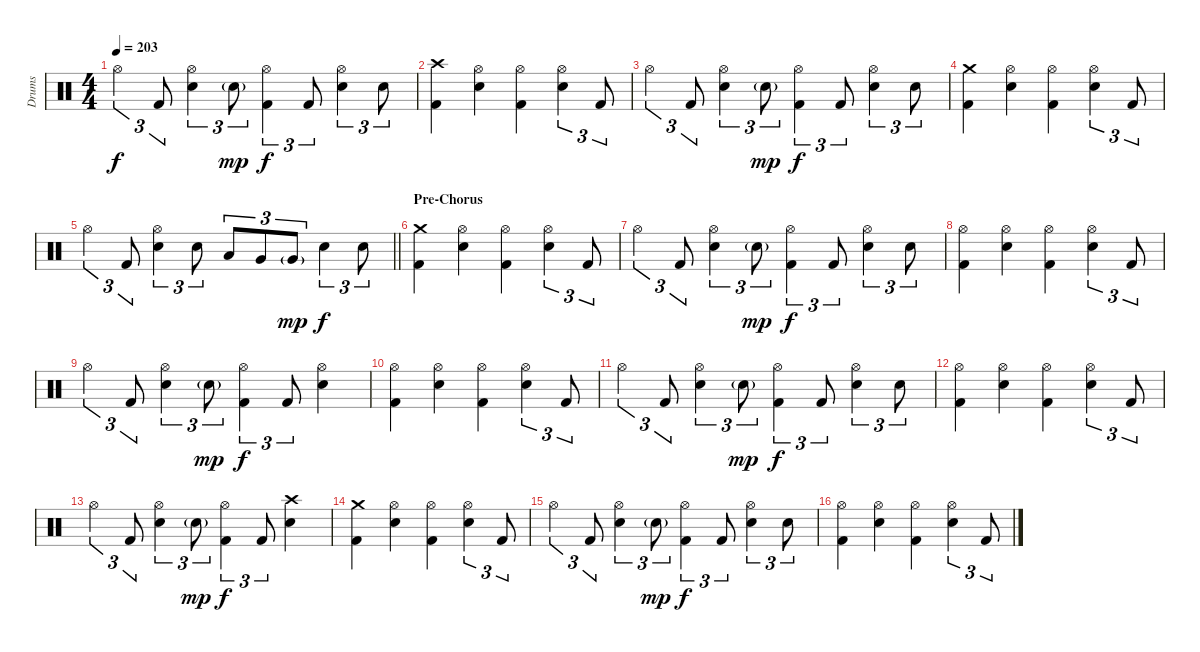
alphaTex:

\track ("Drums" "Drums") {instrument percussion}
\staff {score}
\articulation defaults
\ts (4 4)
\tempo 203
\clef neutral
\ks c "Hi-Hat (open)".4{tu (3 2) dy f} "Kick (hit) 2".8{tu (3 2)}
("Hi-Hat (open)" "Electric Snare (hit)").4{tu (3 2)} "Electric Snare (hit)"{g}.8{tu (3 2) dy mp} ("Hi-Hat (open)" "Kick (hit) 2").4{tu (3 2) dy f} "Kick (hit) 2".8{tu (3 2)} ("Hi-Hat (open)" "Electric Snare (hit)").4{tu (3 2)} "Electric Snare (hit)".8{tu (3 2)} |
("Crash high (hit)" "Kick (hit) 2").4 ("Hi-Hat (open)" "Electric Snare (hit)").4 ("Hi-Hat (open)" "Kick (hit) 2").4 ("Hi-Hat (open)" "Electric Snare (hit)").4{tu (3 2)} "Kick (hit) 2".8{tu (3 2)} |
"Hi-Hat (open)".4{tu (3 2)} "Kick (hit) 2".8{tu (3 2)} ("Hi-Hat (open)" "Electric Snare (hit)").4{tu (3 2)} "Electric Snare (hit)"{g}.8{tu (3 2) dy mp} ("Hi-Hat (open)" "Kick (hit) 2").4{tu (3 2) dy f} "Kick (hit) 2".8{tu (3 2)} ("Hi-Hat (open)" "Electric Snare (hit)").4{tu (3 2)} "Electric Snare (hit)".8{tu (3 2)} |
("Crash medium (hit)" "Kick (hit) 2").4 ("Hi-Hat (open)" "Electric Snare (hit)").4 ("Hi-Hat (open)" "Kick (hit) 2").4 ("Hi-Hat (open)" "Electric Snare (hit)").4{tu (3 2)} "Kick (hit) 2".8{tu (3 2)} |
\barLineRight lightlight "Hi-Hat (open)".4{tu (3 2)} "Kick (hit) 2".8{tu (3 2)}
("Hi-Hat (open)" "Electric Snare (hit)").4{tu (3 2)} "Electric Snare (hit)".8{tu (3 2)} "Low Tom (hit)".8{tu (3 2)} "Very Low Tom (hit)".8{tu (3 2)} "Very Low Tom (hit)"{g}.8{tu (3 2) dy mp} "Electric Snare (hit)".4{tu (3 2) dy f} "Electric Snare (hit)".8{tu (3 2)} |
\section ("" "Pre-Chorus")
("Crash medium (hit)" "Kick (hit) 2").4 ("Hi-Hat (open)" "Electric Snare (hit)").4 ("Hi-Hat (open)" "Kick (hit) 2").4 ("Hi-Hat (open)" "Electric Snare (hit)").4{tu (3 2)} "Kick (hit) 2".8{tu (3 2)} |
"Hi-Hat (open)".4{tu (3 2)} "Kick (hit) 2".8{tu (3 2)} ("Hi-Hat (open)" "Electric Snare (hit)").4{tu (3 2)} "Electric Snare (hit)"{g}.8{tu (3 2) dy mp} ("Hi-Hat (open)" "Kick (hit) 2").4{tu (3 2) dy f} "Kick (hit) 2".8{tu (3 2)} ("Hi-Hat (open)" "Electric Snare (hit)").4{tu (3 2)} "Electric Snare (hit)".8{tu (3 2)} |
("Hi-Hat (open)" "Kick (hit) 2").4 ("Hi-Hat (open)" "Electric Snare (hit)").4 ("Hi-Hat (open)" "Kick (hit) 2").4 ("Hi-Hat (open)" "Electric Snare (hit)").4{tu (3 2)} "Kick (hit) 2".8{tu (3 2)} |
"Hi-Hat (open)".4{tu (3 2)} "Kick (hit) 2".8{tu (3 2)} ("Hi-Hat (open)" "Electric Snare (hit)").4{tu (3 2)} "Electric Snare (hit)"{g}.8{tu (3 2) dy mp} ("Hi-Hat (open)" "Kick (hit) 2").4{tu (3 2) dy f} "Kick (hit) 2".8{tu (3 2)} ("Hi-Hat (open)" "Electric Snare (hit)").4 |
("Hi-Hat (open)" "Kick (hit) 2").4 ("Hi-Hat (open)" "Electric Snare (hit)").4 ("Hi-Hat (open)" "Kick (hit) 2").4 ("Hi-Hat (open)" "Electric Snare (hit)").4{tu (3 2)} "Kick (hit) 2".8{tu (3 2)} |
"Hi-Hat (open)".4{tu (3 2)} "Kick (hit) 2".8{tu (3 2)} ("Hi-Hat (open)" "Electric Snare (hit)").4{tu (3 2)} "Electric Snare (hit)"{g}.8{tu (3 2) dy mp} ("Hi-Hat (open)" "Kick (hit) 2").4{tu (3 2) dy f} "Kick (hit) 2".8{tu (3 2)} ("Hi-Hat (open)" "Electric Snare (hit)").4{tu (3 2)} "Electric Snare (hit)".8{tu (3 2)} |
("Hi-Hat (open)" "Kick (hit) 2").4 ("Hi-Hat (open)" "Electric Snare (hit)").4 ("Hi-Hat (open)" "Kick (hit) 2").4 ("Hi-Hat (open)" "Electric Snare (hit)").4{tu (3 2)} "Kick (hit) 2".8{tu (3 2)} |
"Hi-Hat (open)".4{tu (3 2)} "Kick (hit) 2".8{tu (3 2)} ("Hi-Hat (open)" "Electric Snare (hit)").4{tu (3 2)} "Electric Snare (hit)"{g}.8{tu (3 2) dy mp} ("Hi-Hat (open)" "Kick (hit) 2").4{tu (3 2) dy f} "Kick (hit) 2".8{tu (3 2)} ("Crash high (hit)" "Electric Snare (hit)").4 |
("Crash medium (hit)" "Kick (hit) 2").4 ("Hi-Hat (open)" "Electric Snare (hit)").4 ("Hi-Hat (open)" "Kick (hit) 2").4 ("Hi-Hat (open)" "Electric Snare (hit)").4{tu (3 2)} "Kick (hit) 2".8{tu (3 2)} |
"Hi-Hat (open)".4{tu (3 2)} "Kick (hit) 2".8{tu (3 2)} ("Hi-Hat (open)" "Electric Snare (hit)").4{tu (3 2)} "Electric Snare (hit)"{g}.8{tu (3 2) dy mp} ("Hi-Hat (open)" "Kick (hit) 2").4{tu (3 2) dy f} "Kick (hit) 2".8{tu (3 2)} ("Hi-Hat (open)" "Electric Snare (hit)").4{tu (3 2)} "Electric Snare (hit)".8{tu (3 2)} |
("Hi-Hat (open)" "Kick (hit) 2").4 ("Hi-Hat (open)" "Electric Snare (hit)").4 ("Hi-Hat (open)" "Kick (hit) 2").4 ("Hi-Hat (open)" "Electric Snare (hit)").4{tu (3 2)} "Kick (hit) 2".8{tu (3 2)}
